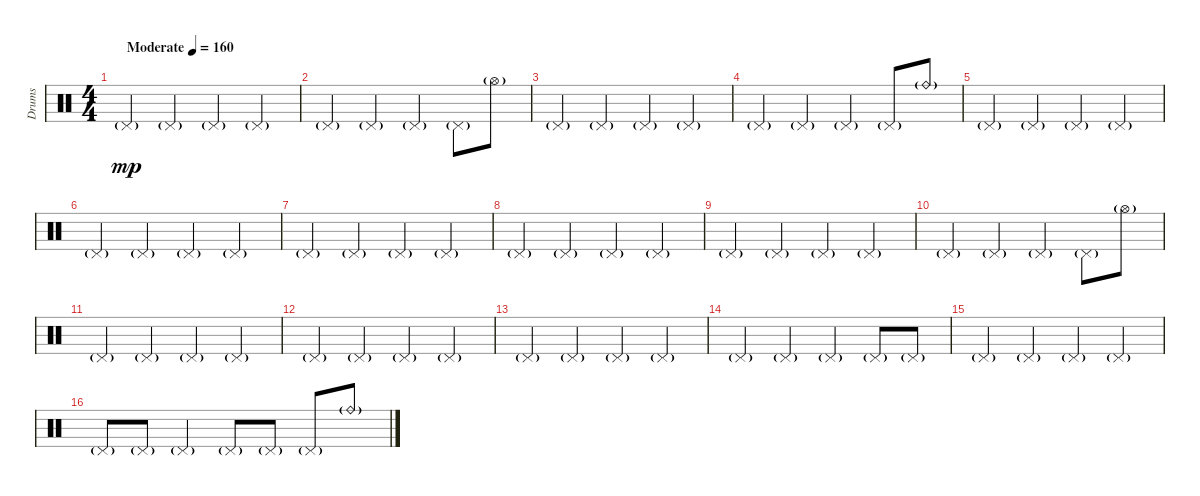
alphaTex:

\track ("Drums" "Drums") {instrument percussion}
\staff {score}
\articulation defaults
\ts (4 4)
\tempo (160 "Moderate")
\clef neutral
\ks c "Pedal Hi-Hat (hit)"{g}.4{dy mp} "Pedal Hi-Hat (hit)"{g}.4 "Pedal Hi-Hat (hit)"{g}.4 "Pedal Hi-Hat (hit)"{g}.4
|
"Pedal Hi-Hat (hit)"{g}.4 "Pedal Hi-Hat (hit)"{g}.4 "Pedal Hi-Hat (hit)"{g}.4 "Pedal Hi-Hat (hit)"{g}.8 "Hi-Hat (open)"{g}.8 |
"Pedal Hi-Hat (hit)"{g}.4 "Pedal Hi-Hat (hit)"{g}.4 "Pedal Hi-Hat (hit)"{g}.4 "Pedal Hi-Hat (hit)"{g}.4 |
"Pedal Hi-Hat (hit)"{g}.4 "Pedal Hi-Hat (hit)"{g}.4 "Pedal Hi-Hat (hit)"{g}.4 "Pedal Hi-Hat (hit)"{g}.8 "Ride (bell)"{g}.8 |
"Pedal Hi-Hat (hit)"{g}.4 "Pedal Hi-Hat (hit)"{g}.4 "Pedal Hi-Hat (hit)"{g}.4 "Pedal Hi-Hat (hit)"{g}.4 |
"Pedal Hi-Hat (hit)"{g}.4 "Pedal Hi-Hat (hit)"{g}.4 "Pedal Hi-Hat (hit)"{g}.4 "Pedal Hi-Hat (hit)"{g}.4 |
"Pedal Hi-Hat (hit)"{g}.4 "Pedal Hi-Hat (hit)"{g}.4 "Pedal Hi-Hat (hit)"{g}.4 "Pedal Hi-Hat (hit)"{g}.4 |
"Pedal Hi-Hat (hit)"{g}.4 "Pedal Hi-Hat (hit)"{g}.4 "Pedal Hi-Hat (hit)"{g}.4 "Pedal Hi-Hat (hit)"{g}.4 |
"Pedal Hi-Hat (hit)"{g}.4 "Pedal Hi-Hat (hit)"{g}.4 "Pedal Hi-Hat (hit)"{g}.4 "Pedal Hi-Hat (hit)"{g}.4 |
"Pedal Hi-Hat (hit)"{g}.4 "Pedal Hi-Hat (hit)"{g}.4 "Pedal Hi-Hat (hit)"{g}.4 "Pedal Hi-Hat (hit)"{g}.8 "Hi-Hat (open)"{g}.8 |
"Pedal Hi-Hat (hit)"{g}.4 "Pedal Hi-Hat (hit)"{g}.4 "Pedal Hi-Hat (hit)"{g}.4 "Pedal Hi-Hat (hit)"{g}.4 |
"Pedal Hi-Hat (hit)"{g}.4 "Pedal Hi-Hat (hit)"{g}.4 "Pedal Hi-Hat (hit)"{g}.4 "Pedal Hi-Hat (hit)"{g}.4 |
"Pedal Hi-Hat (hit)"{g}.4 "Pedal Hi-Hat (hit)"{g}.4 "Pedal Hi-Hat (hit)"{g}.4 "Pedal Hi-Hat (hit)"{g}.4 |
"Pedal Hi-Hat (hit)"{g}.4 "Pedal Hi-Hat (hit)"{g}.4 "Pedal Hi-Hat (hit)"{g}.4 "Pedal Hi-Hat (hit)"{g}.8 "Pedal Hi-Hat (hit)"{g}.8 |
"Pedal Hi-Hat (hit)"{g}.4 "Pedal Hi-Hat (hit)"{g}.4 "Pedal Hi-Hat (hit)"{g}.4 "Pedal Hi-Hat (hit)"{g}.4 |
"Pedal Hi-Hat (hit)"{g}.8 "Pedal Hi-Hat (hit)"{g}.8 "Pedal Hi-Hat (hit)"{g}.4 "Pedal Hi-Hat (hit)"{g}.8 "Pedal Hi-Hat (hit)"{g}.8 "Pedal Hi-Hat (hit)"{g}.8 "Ride (bell)"{g}.8
